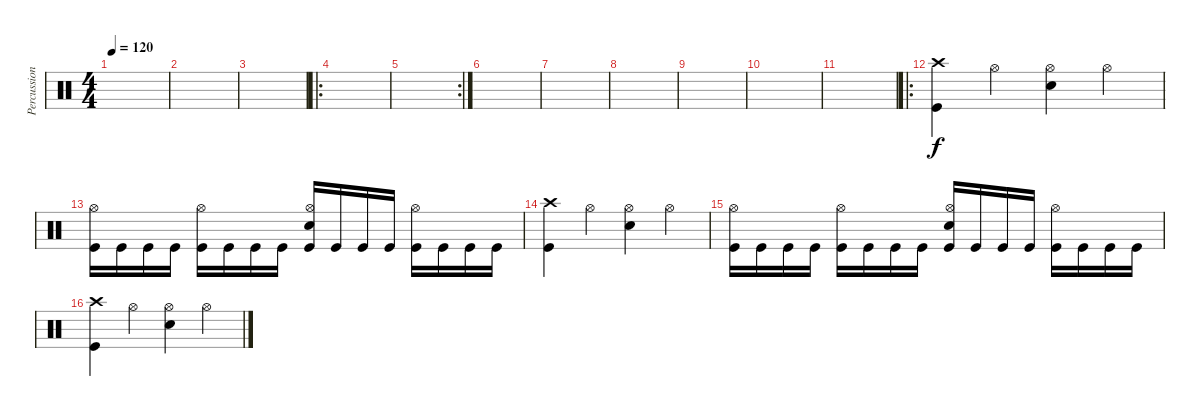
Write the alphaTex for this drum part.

\track ("Percussion" "Percussion") {instrument percussion}
\staff {score}
\articulation defaults
\ts (4 4)
\tempo 120
\clef neutral
\ks c
|
|
|
\ro
|
\rc 2
|
|
|
|
|
|
|
\ro
("Crash high (hit)" "Kick (hit)").4 "Hi-Hat (open)".4 ("Hi-Hat (open)" "Electric Snare (hit)").4 "Hi-Hat (open)".4 |
("Hi-Hat (open)" "Kick (hit)").16 "Kick (hit)".16 "Kick (hit)".16 "Kick (hit)".16 ("Hi-Hat (open)" "Kick (hit)").16 "Kick (hit)".16 "Kick (hit)".16 "Kick (hit)".16 ("Hi-Hat (open)" "Electric Snare (hit)" "Kick (hit)").16 "Kick (hit)".16 "Kick (hit)".16 "Kick (hit)".16 ("Hi-Hat (open)" "Kick (hit)").16 "Kick (hit)".16 "Kick (hit)".16 "Kick (hit)".16 |
("Crash high (hit)" "Kick (hit)").4 "Hi-Hat (open)".4 ("Hi-Hat (open)" "Electric Snare (hit)").4 "Hi-Hat (open)".4 |
("Hi-Hat (open)" "Kick (hit)").16 "Kick (hit)".16 "Kick (hit)".16 "Kick (hit)".16 ("Hi-Hat (open)" "Kick (hit)").16 "Kick (hit)".16 "Kick (hit)".16 "Kick (hit)".16 ("Hi-Hat (open)" "Electric Snare (hit)" "Kick (hit)").16 "Kick (hit)".16 "Kick (hit)".16 "Kick (hit)".16 ("Hi-Hat (open)" "Kick (hit)").16 "Kick (hit)".16 "Kick (hit)".16 "Kick (hit)".16 |
("Crash high (hit)" "Kick (hit)").4 "Hi-Hat (open)".4 ("Hi-Hat (open)" "Electric Snare (hit)").4 "Hi-Hat (open)".4
